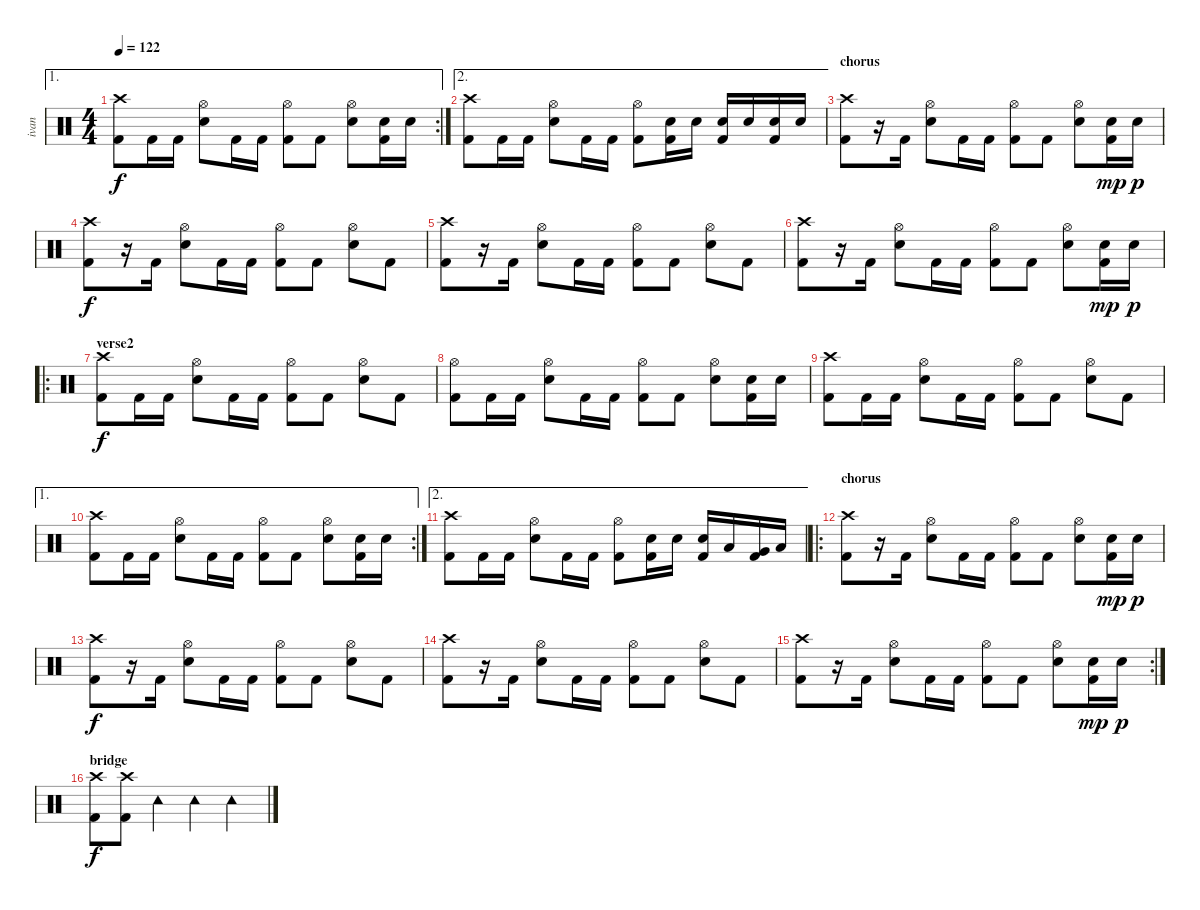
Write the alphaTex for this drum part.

\track ("ivan" "ivan") {instrument percussion}
\staff {score}
\articulation defaults
\ae 1
\rc 2
\ts (4 4)
\tempo 122
\clef neutral
\ks c
("Crash high (hit)" "Kick (hit) 2").8{dy f} "Kick (hit) 2".16 "Kick (hit) 2".16 ("Hi-Hat (open)" "Electric Snare (hit)").8 "Kick (hit) 2".16 "Kick (hit) 2".16 ("Hi-Hat (open)" "Kick (hit) 2").8 "Kick (hit) 2".8 ("Hi-Hat (open)" "Electric Snare (hit)").8 ("Electric Snare (hit)" "Kick (hit) 2").16 "Electric Snare (hit)".16 |
\ae 2
("Crash high (hit)" "Kick (hit) 2").8 "Kick (hit) 2".16 "Kick (hit) 2".16 ("Hi-Hat (open)" "Electric Snare (hit)").8 "Kick (hit) 2".16 "Kick (hit) 2".16 ("Hi-Hat (open)" "Kick (hit) 2").8 ("Electric Snare (hit)" "Kick (hit) 2").16 "Electric Snare (hit)".16 ("Electric Snare (hit)" "Kick (hit) 2").16 "Electric Snare (hit)".16 ("Electric Snare (hit)" "Kick (hit) 2").16 "Electric Snare (hit)".16 |
\section ("" "chorus")
("Crash high (hit)" "Kick (hit) 2").8 r.16 "Kick (hit) 2".16 ("Hi-Hat (open)" "Electric Snare (hit)").8 "Kick (hit) 2".16 "Kick (hit) 2".16 ("Hi-Hat (open)" "Kick (hit) 2").8 "Kick (hit) 2".8 ("Hi-Hat (open)" "Electric Snare (hit)").8 ("Electric Snare (hit)" "Kick (hit) 2").16{dy mp} "Electric Snare (hit)".16{dy p} |
("Crash high (hit)" "Kick (hit) 2").8{dy f} r.16 "Kick (hit) 2".16 ("Hi-Hat (open)" "Electric Snare (hit)").8 "Kick (hit) 2".16 "Kick (hit) 2".16 ("Hi-Hat (open)" "Kick (hit) 2").8 "Kick (hit) 2".8 ("Hi-Hat (open)" "Electric Snare (hit)").8 "Kick (hit) 2".8 |
("Crash high (hit)" "Kick (hit) 2").8 r.16 "Kick (hit) 2".16 ("Hi-Hat (open)" "Electric Snare (hit)").8 "Kick (hit) 2".16 "Kick (hit) 2".16 ("Hi-Hat (open)" "Kick (hit) 2").8 "Kick (hit) 2".8 ("Hi-Hat (open)" "Electric Snare (hit)").8 "Kick (hit) 2".8 |
("Crash high (hit)" "Kick (hit) 2").8 r.16 "Kick (hit) 2".16 ("Hi-Hat (open)" "Electric Snare (hit)").8 "Kick (hit) 2".16 "Kick (hit) 2".16 ("Hi-Hat (open)" "Kick (hit) 2").8 "Kick (hit) 2".8 ("Hi-Hat (open)" "Electric Snare (hit)").8 ("Electric Snare (hit)" "Kick (hit) 2").16{dy mp} "Electric Snare (hit)".16{dy p} |
\ro
\section ("" "verse2")
("Crash high (hit)" "Kick (hit) 2").8{dy f} "Kick (hit) 2".16 "Kick (hit) 2".16 ("Hi-Hat (open)" "Electric Snare (hit)").8 "Kick (hit) 2".16 "Kick (hit) 2".16 ("Hi-Hat (open)" "Kick (hit) 2").8 "Kick (hit) 2".8 ("Hi-Hat (open)" "Electric Snare (hit)").8 "Kick (hit) 2".8 |
("Hi-Hat (open)" "Kick (hit) 2").8 "Kick (hit) 2".16 "Kick (hit) 2".16 ("Hi-Hat (open)" "Electric Snare (hit)").8 "Kick (hit) 2".16 "Kick (hit) 2".16 ("Hi-Hat (open)" "Kick (hit) 2").8 "Kick (hit) 2".8 ("Hi-Hat (open)" "Electric Snare (hit)").8 ("Electric Snare (hit)" "Kick (hit) 2").16 "Electric Snare (hit)".16 |
("Crash high (hit)" "Kick (hit) 2").8 "Kick (hit) 2".16 "Kick (hit) 2".16 ("Hi-Hat (open)" "Electric Snare (hit)").8 "Kick (hit) 2".16 "Kick (hit) 2".16 ("Hi-Hat (open)" "Kick (hit) 2").8 "Kick (hit) 2".8 ("Hi-Hat (open)" "Electric Snare (hit)").8 "Kick (hit) 2".8 |
\ae 1
\rc 2
("Crash high (hit)" "Kick (hit) 2").8 "Kick (hit) 2".16 "Kick (hit) 2".16 ("Hi-Hat (open)" "Electric Snare (hit)").8 "Kick (hit) 2".16 "Kick (hit) 2".16 ("Hi-Hat (open)" "Kick (hit) 2").8 "Kick (hit) 2".8 ("Hi-Hat (open)" "Electric Snare (hit)").8 ("Electric Snare (hit)" "Kick (hit) 2").16 "Electric Snare (hit)".16 |
\ae 2
("Crash high (hit)" "Kick (hit) 2").8 "Kick (hit) 2".16 "Kick (hit) 2".16 ("Hi-Hat (open)" "Electric Snare (hit)").8 "Kick (hit) 2".16 "Kick (hit) 2".16 ("Hi-Hat (open)" "Kick (hit) 2").8 ("Electric Snare (hit)" "Kick (hit) 2").16 "Electric Snare (hit)".16 ("Electric Snare (hit)" "Kick (hit) 2").16 "Low Tom (hit)".16 ("Very Low Tom (hit)" "Kick (hit) 2").16 "Low Floor Tom (hit)".16 |
\ro
\section ("" "chorus")
("Crash high (hit)" "Kick (hit) 2").8 r.16 "Kick (hit) 2".16 ("Hi-Hat (open)" "Electric Snare (hit)").8 "Kick (hit) 2".16 "Kick (hit) 2".16 ("Hi-Hat (open)" "Kick (hit) 2").8 "Kick (hit) 2".8 ("Hi-Hat (open)" "Electric Snare (hit)").8 ("Electric Snare (hit)" "Kick (hit) 2").16{dy mp} "Electric Snare (hit)".16{dy p} |
("Crash high (hit)" "Kick (hit) 2").8{dy f} r.16 "Kick (hit) 2".16 ("Hi-Hat (open)" "Electric Snare (hit)").8 "Kick (hit) 2".16 "Kick (hit) 2".16 ("Hi-Hat (open)" "Kick (hit) 2").8 "Kick (hit) 2".8 ("Hi-Hat (open)" "Electric Snare (hit)").8 "Kick (hit) 2".8 |
("Crash high (hit)" "Kick (hit) 2").8 r.16 "Kick (hit) 2".16 ("Hi-Hat (open)" "Electric Snare (hit)").8 "Kick (hit) 2".16 "Kick (hit) 2".16 ("Hi-Hat (open)" "Kick (hit) 2").8 "Kick (hit) 2".8 ("Hi-Hat (open)" "Electric Snare (hit)").8 "Kick (hit) 2".8 |
\rc 2
("Crash high (hit)" "Kick (hit) 2").8 r.16 "Kick (hit) 2".16 ("Hi-Hat (open)" "Electric Snare (hit)").8 "Kick (hit) 2".16 "Kick (hit) 2".16 ("Hi-Hat (open)" "Kick (hit) 2").8 "Kick (hit) 2".8 ("Hi-Hat (open)" "Electric Snare (hit)").8 ("Electric Snare (hit)" "Kick (hit) 2").16{dy mp} "Electric Snare (hit)".16{dy p} |
\section ("" "bridge")
("Crash high (hit)" "Kick (hit) 2").8{dy f} ("Crash high (hit)" "Kick (hit) 2").8 "Tambourine (hit)".4 "Tambourine (hit)".4 "Tambourine (hit)".4
